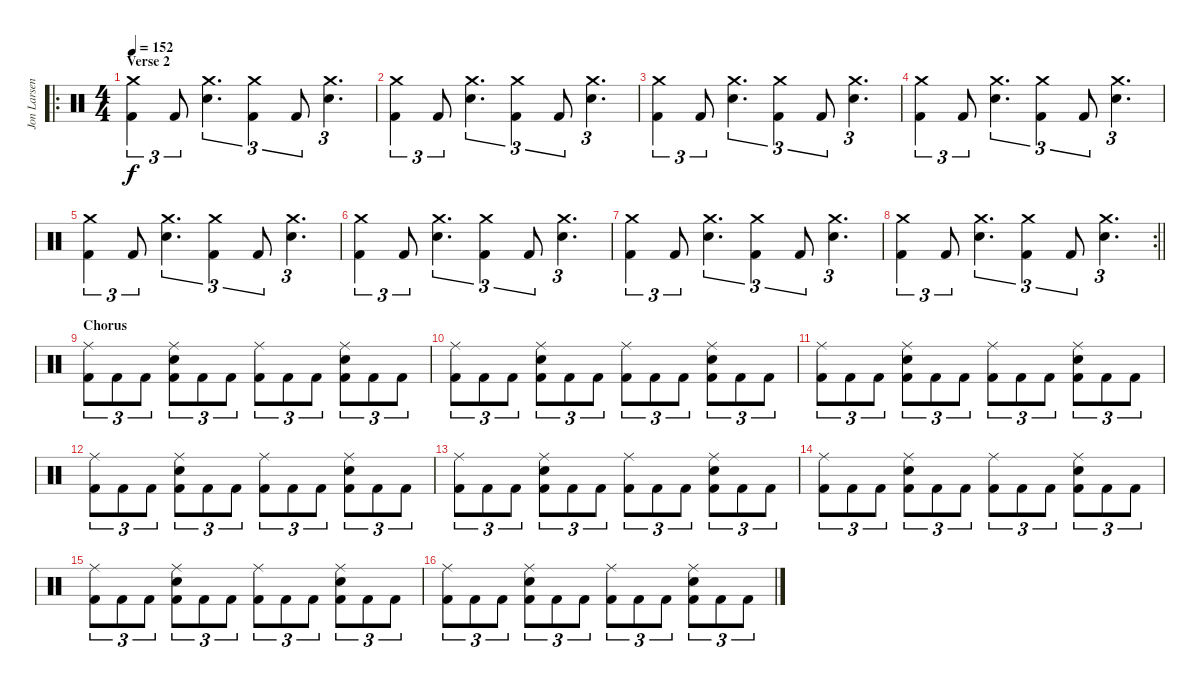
\track ("Jon Larsen" "Jon Larsen") {instrument percussion}
\staff {score}
\articulation defaults
\ro
\ts (4 4)
\section ("" "Verse 2")
\tempo 152
\clef neutral
\ks c
("Kick (hit) 2" "Crash medium (hit)").4{tu (3 2) dy f} "Kick (hit) 2".8{tu (3 2)} ("Electric Snare (hit)" "Crash medium (hit)").4{d tu (3 2)} ("Kick (hit) 2" "Crash medium (hit)").4{tu (3 2)} "Kick (hit) 2".8{tu (3 2)} ("Electric Snare (hit)" "Crash medium (hit)").4{d tu (3 2)} |
("Kick (hit) 2" "Crash medium (hit)").4{tu (3 2)} "Kick (hit) 2".8{tu (3 2)} ("Electric Snare (hit)" "Crash medium (hit)").4{d tu (3 2)} ("Kick (hit) 2" "Crash medium (hit)").4{tu (3 2)} "Kick (hit) 2".8{tu (3 2)} ("Electric Snare (hit)" "Crash medium (hit)").4{d tu (3 2)} |
("Kick (hit) 2" "Crash medium (hit)").4{tu (3 2)} "Kick (hit) 2".8{tu (3 2)} ("Electric Snare (hit)" "Crash medium (hit)").4{d tu (3 2)} ("Kick (hit) 2" "Crash medium (hit)").4{tu (3 2)} "Kick (hit) 2".8{tu (3 2)} ("Electric Snare (hit)" "Crash medium (hit)").4{d tu (3 2)} |
("Kick (hit) 2" "Crash medium (hit)").4{tu (3 2)} "Kick (hit) 2".8{tu (3 2)} ("Electric Snare (hit)" "Crash medium (hit)").4{d tu (3 2)} ("Kick (hit) 2" "Crash medium (hit)").4{tu (3 2)} "Kick (hit) 2".8{tu (3 2)} ("Electric Snare (hit)" "Crash medium (hit)").4{d tu (3 2)} |
("Kick (hit) 2" "Crash medium (hit)").4{tu (3 2)} "Kick (hit) 2".8{tu (3 2)} ("Electric Snare (hit)" "Crash medium (hit)").4{d tu (3 2)} ("Kick (hit) 2" "Crash medium (hit)").4{tu (3 2)} "Kick (hit) 2".8{tu (3 2)} ("Electric Snare (hit)" "Crash medium (hit)").4{d tu (3 2)} |
("Kick (hit) 2" "Crash medium (hit)").4{tu (3 2)} "Kick (hit) 2".8{tu (3 2)} ("Electric Snare (hit)" "Crash medium (hit)").4{d tu (3 2)} ("Kick (hit) 2" "Crash medium (hit)").4{tu (3 2)} "Kick (hit) 2".8{tu (3 2)} ("Electric Snare (hit)" "Crash medium (hit)").4{d tu (3 2)} |
("Kick (hit) 2" "Crash medium (hit)").4{tu (3 2)} "Kick (hit) 2".8{tu (3 2)} ("Electric Snare (hit)" "Crash medium (hit)").4{d tu (3 2)} ("Kick (hit) 2" "Crash medium (hit)").4{tu (3 2)} "Kick (hit) 2".8{tu (3 2)} ("Electric Snare (hit)" "Crash medium (hit)").4{d tu (3 2)} |
\rc 2
\barLineRight lightlight
("Kick (hit) 2" "Crash medium (hit)").4{tu (3 2)} "Kick (hit) 2".8{tu (3 2)} ("Electric Snare (hit)" "Crash medium (hit)").4{d tu (3 2)} ("Kick (hit) 2" "Crash medium (hit)").4{tu (3 2)} "Kick (hit) 2".8{tu (3 2)} ("Electric Snare (hit)" "Crash medium (hit)").4{d tu (3 2)} |
\section ("" "Chorus")
("Kick (hit) 2" "Ride (middle)").8{tu (3 2)} "Kick (hit) 2".8{tu (3 2)} "Kick (hit) 2".8{tu (3 2)} ("Kick (hit) 2" "Electric Snare (hit)" "Ride (middle)").8{tu (3 2)} "Kick (hit) 2".8{tu (3 2)} "Kick (hit) 2".8{tu (3 2)} ("Kick (hit) 2" "Ride (middle)").8{tu (3 2)} "Kick (hit) 2".8{tu (3 2)} "Kick (hit) 2".8{tu (3 2)} ("Kick (hit) 2" "Electric Snare (hit)" "Ride (middle)").8{tu (3 2)} "Kick (hit) 2".8{tu (3 2)} "Kick (hit) 2".8{tu (3 2)} |
("Kick (hit) 2" "Ride (middle)").8{tu (3 2)} "Kick (hit) 2".8{tu (3 2)} "Kick (hit) 2".8{tu (3 2)} ("Kick (hit) 2" "Electric Snare (hit)" "Ride (middle)").8{tu (3 2)} "Kick (hit) 2".8{tu (3 2)} "Kick (hit) 2".8{tu (3 2)} ("Kick (hit) 2" "Ride (middle)").8{tu (3 2)} "Kick (hit) 2".8{tu (3 2)} "Kick (hit) 2".8{tu (3 2)} ("Kick (hit) 2" "Electric Snare (hit)" "Ride (middle)").8{tu (3 2)} "Kick (hit) 2".8{tu (3 2)} "Kick (hit) 2".8{tu (3 2)} |
("Kick (hit) 2" "Ride (middle)").8{tu (3 2)} "Kick (hit) 2".8{tu (3 2)} "Kick (hit) 2".8{tu (3 2)} ("Kick (hit) 2" "Electric Snare (hit)" "Ride (middle)").8{tu (3 2)} "Kick (hit) 2".8{tu (3 2)} "Kick (hit) 2".8{tu (3 2)} ("Kick (hit) 2" "Ride (middle)").8{tu (3 2)} "Kick (hit) 2".8{tu (3 2)} "Kick (hit) 2".8{tu (3 2)} ("Kick (hit) 2" "Electric Snare (hit)" "Ride (middle)").8{tu (3 2)} "Kick (hit) 2".8{tu (3 2)} "Kick (hit) 2".8{tu (3 2)} |
("Kick (hit) 2" "Ride (middle)").8{tu (3 2)} "Kick (hit) 2".8{tu (3 2)} "Kick (hit) 2".8{tu (3 2)} ("Kick (hit) 2" "Electric Snare (hit)" "Ride (middle)").8{tu (3 2)} "Kick (hit) 2".8{tu (3 2)} "Kick (hit) 2".8{tu (3 2)} ("Kick (hit) 2" "Ride (middle)").8{tu (3 2)} "Kick (hit) 2".8{tu (3 2)} "Kick (hit) 2".8{tu (3 2)} ("Kick (hit) 2" "Electric Snare (hit)" "Ride (middle)").8{tu (3 2)} "Kick (hit) 2".8{tu (3 2)} "Kick (hit) 2".8{tu (3 2)} |
("Kick (hit) 2" "Ride (middle)").8{tu (3 2)} "Kick (hit) 2".8{tu (3 2)} "Kick (hit) 2".8{tu (3 2)} ("Kick (hit) 2" "Electric Snare (hit)" "Ride (middle)").8{tu (3 2)} "Kick (hit) 2".8{tu (3 2)} "Kick (hit) 2".8{tu (3 2)} ("Kick (hit) 2" "Ride (middle)").8{tu (3 2)} "Kick (hit) 2".8{tu (3 2)} "Kick (hit) 2".8{tu (3 2)} ("Kick (hit) 2" "Electric Snare (hit)" "Ride (middle)").8{tu (3 2)} "Kick (hit) 2".8{tu (3 2)} "Kick (hit) 2".8{tu (3 2)} |
("Kick (hit) 2" "Ride (middle)").8{tu (3 2)} "Kick (hit) 2".8{tu (3 2)} "Kick (hit) 2".8{tu (3 2)} ("Kick (hit) 2" "Electric Snare (hit)" "Ride (middle)").8{tu (3 2)} "Kick (hit) 2".8{tu (3 2)} "Kick (hit) 2".8{tu (3 2)} ("Kick (hit) 2" "Ride (middle)").8{tu (3 2)} "Kick (hit) 2".8{tu (3 2)} "Kick (hit) 2".8{tu (3 2)} ("Kick (hit) 2" "Electric Snare (hit)" "Ride (middle)").8{tu (3 2)} "Kick (hit) 2".8{tu (3 2)} "Kick (hit) 2".8{tu (3 2)} |
("Kick (hit) 2" "Ride (middle)").8{tu (3 2)} "Kick (hit) 2".8{tu (3 2)} "Kick (hit) 2".8{tu (3 2)} ("Kick (hit) 2" "Electric Snare (hit)" "Ride (middle)").8{tu (3 2)} "Kick (hit) 2".8{tu (3 2)} "Kick (hit) 2".8{tu (3 2)} ("Kick (hit) 2" "Ride (middle)").8{tu (3 2)} "Kick (hit) 2".8{tu (3 2)} "Kick (hit) 2".8{tu (3 2)} ("Kick (hit) 2" "Electric Snare (hit)" "Ride (middle)").8{tu (3 2)} "Kick (hit) 2".8{tu (3 2)} "Kick (hit) 2".8{tu (3 2)} |
("Kick (hit) 2" "Ride (middle)").8{tu (3 2)} "Kick (hit) 2".8{tu (3 2)} "Kick (hit) 2".8{tu (3 2)} ("Kick (hit) 2" "Electric Snare (hit)" "Ride (middle)").8{tu (3 2)} "Kick (hit) 2".8{tu (3 2)} "Kick (hit) 2".8{tu (3 2)} ("Kick (hit) 2" "Ride (middle)").8{tu (3 2)} "Kick (hit) 2".8{tu (3 2)} "Kick (hit) 2".8{tu (3 2)} ("Kick (hit) 2" "Electric Snare (hit)" "Ride (middle)").8{tu (3 2)} "Kick (hit) 2".8{tu (3 2)} "Kick (hit) 2".8{tu (3 2)}
